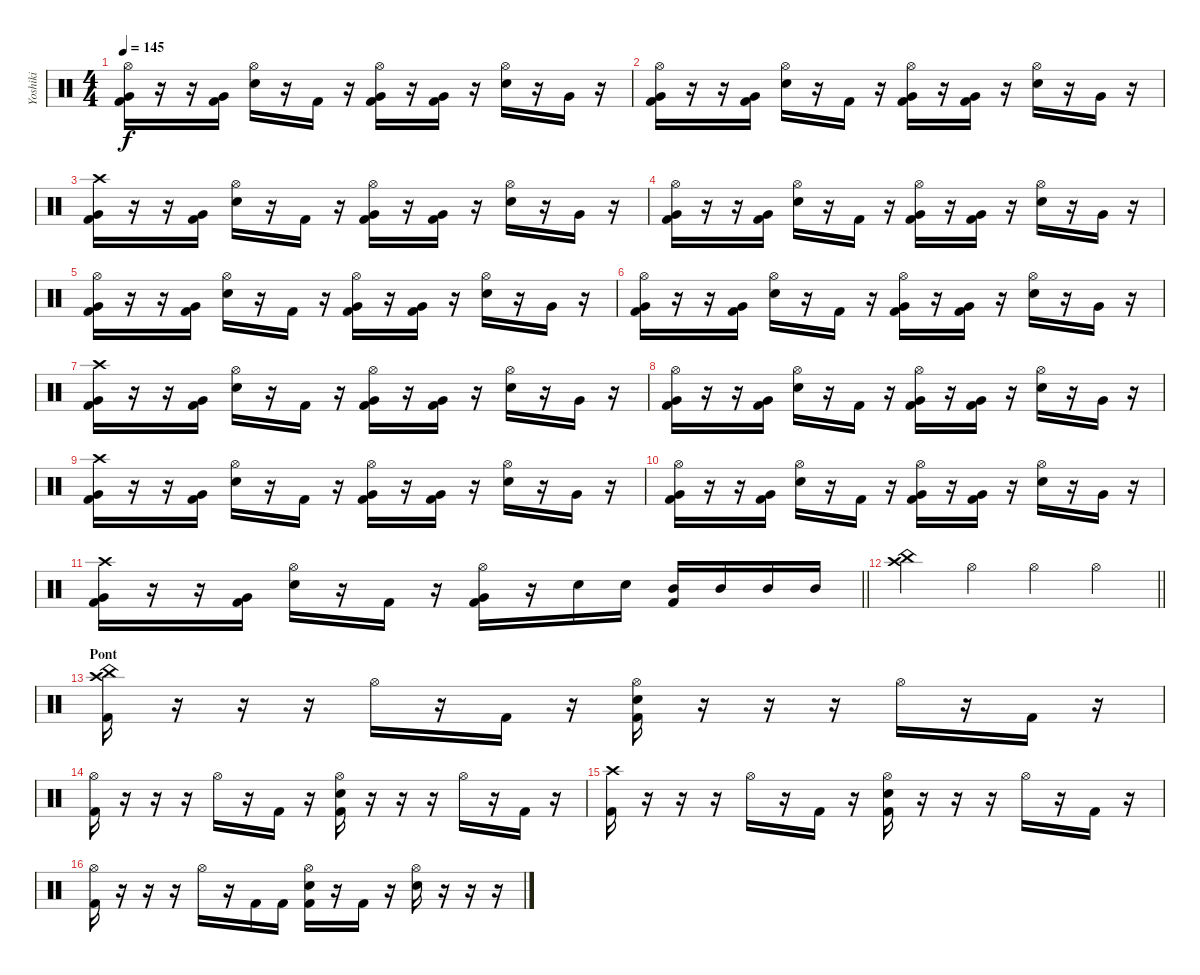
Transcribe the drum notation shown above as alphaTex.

\track ("Yoshiki" "Yoshiki") {instrument percussion}
\staff {score}
\articulation defaults
\ts (4 4)
\tempo 145
\clef neutral
\ks c
("Hi-Hat (open)" "Very Low Tom (hit)" "Kick (hit) 2").16{dy f} r.16 r.16 ("Very Low Tom (hit)" "Kick (hit) 2").16 ("Hi-Hat (open)" "Snare (hit) 2").16 r.16 "Kick (hit) 2".16 r.16 ("Hi-Hat (open)" "Very Low Tom (hit)" "Kick (hit) 2").16 r.16 ("Very Low Tom (hit)" "Kick (hit) 2").16 r.16 ("Hi-Hat (open)" "Snare (hit) 2").16 r.16 "Very Low Tom (hit)".16 r.16 |
("Hi-Hat (open)" "Very Low Tom (hit)" "Kick (hit) 2").16 r.16 r.16 ("Very Low Tom (hit)" "Kick (hit) 2").16 ("Hi-Hat (open)" "Snare (hit) 2").16 r.16 "Kick (hit) 2".16 r.16 ("Hi-Hat (open)" "Very Low Tom (hit)" "Kick (hit) 2").16 r.16 ("Very Low Tom (hit)" "Kick (hit) 2").16 r.16 ("Hi-Hat (open)" "Snare (hit) 2").16 r.16 "Very Low Tom (hit)".16 r.16 |
("Crash high (hit)" "Very Low Tom (hit)" "Kick (hit) 2").16 r.16 r.16 ("Very Low Tom (hit)" "Kick (hit) 2").16 ("Hi-Hat (open)" "Snare (hit) 2").16 r.16 "Kick (hit) 2".16 r.16 ("Hi-Hat (open)" "Very Low Tom (hit)" "Kick (hit) 2").16 r.16 ("Very Low Tom (hit)" "Kick (hit) 2").16 r.16 ("Hi-Hat (open)" "Snare (hit) 2").16 r.16 "Very Low Tom (hit)".16 r.16 |
("Hi-Hat (open)" "Very Low Tom (hit)" "Kick (hit) 2").16 r.16 r.16 ("Very Low Tom (hit)" "Kick (hit) 2").16 ("Hi-Hat (open)" "Snare (hit) 2").16 r.16 "Kick (hit) 2".16 r.16 ("Hi-Hat (open)" "Very Low Tom (hit)" "Kick (hit) 2").16 r.16 ("Very Low Tom (hit)" "Kick (hit) 2").16 r.16 ("Hi-Hat (open)" "Snare (hit) 2").16 r.16 "Very Low Tom (hit)".16 r.16 |
("Hi-Hat (open)" "Very Low Tom (hit)" "Kick (hit) 2").16 r.16 r.16 ("Very Low Tom (hit)" "Kick (hit) 2").16 ("Hi-Hat (open)" "Snare (hit) 2").16 r.16 "Kick (hit) 2".16 r.16 ("Hi-Hat (open)" "Very Low Tom (hit)" "Kick (hit) 2").16 r.16 ("Very Low Tom (hit)" "Kick (hit) 2").16 r.16 ("Hi-Hat (open)" "Snare (hit) 2").16 r.16 "Very Low Tom (hit)".16 r.16 |
("Hi-Hat (open)" "Very Low Tom (hit)" "Kick (hit) 2").16 r.16 r.16 ("Very Low Tom (hit)" "Kick (hit) 2").16 ("Hi-Hat (open)" "Snare (hit) 2").16 r.16 "Kick (hit) 2".16 r.16 ("Hi-Hat (open)" "Very Low Tom (hit)" "Kick (hit) 2").16 r.16 ("Very Low Tom (hit)" "Kick (hit) 2").16 r.16 ("Hi-Hat (open)" "Snare (hit) 2").16 r.16 "Very Low Tom (hit)".16 r.16 |
("Crash high (hit)" "Very Low Tom (hit)" "Kick (hit) 2").16 r.16 r.16 ("Very Low Tom (hit)" "Kick (hit) 2").16 ("Hi-Hat (open)" "Snare (hit) 2").16 r.16 "Kick (hit) 2".16 r.16 ("Hi-Hat (open)" "Very Low Tom (hit)" "Kick (hit) 2").16 r.16 ("Very Low Tom (hit)" "Kick (hit) 2").16 r.16 ("Hi-Hat (open)" "Snare (hit) 2").16 r.16 "Very Low Tom (hit)".16 r.16 |
("Hi-Hat (open)" "Very Low Tom (hit)" "Kick (hit) 2").16 r.16 r.16 ("Very Low Tom (hit)" "Kick (hit) 2").16 ("Hi-Hat (open)" "Snare (hit) 2").16 r.16 "Kick (hit) 2".16 r.16 ("Hi-Hat (open)" "Very Low Tom (hit)" "Kick (hit) 2").16 r.16 ("Very Low Tom (hit)" "Kick (hit) 2").16 r.16 ("Hi-Hat (open)" "Snare (hit) 2").16 r.16 "Very Low Tom (hit)".16 r.16 |
("Crash high (hit)" "Very Low Tom (hit)" "Kick (hit) 2").16 r.16 r.16 ("Very Low Tom (hit)" "Kick (hit) 2").16 ("Hi-Hat (open)" "Snare (hit) 2").16 r.16 "Kick (hit) 2".16 r.16 ("Hi-Hat (open)" "Very Low Tom (hit)" "Kick (hit) 2").16 r.16 ("Very Low Tom (hit)" "Kick (hit) 2").16 r.16 ("Hi-Hat (open)" "Snare (hit) 2").16 r.16 "Very Low Tom (hit)".16 r.16 |
("Hi-Hat (open)" "Very Low Tom (hit)" "Kick (hit) 2").16 r.16 r.16 ("Very Low Tom (hit)" "Kick (hit) 2").16 ("Hi-Hat (open)" "Snare (hit) 2").16 r.16 "Kick (hit) 2".16 r.16 ("Hi-Hat (open)" "Very Low Tom (hit)" "Kick (hit) 2").16 r.16 ("Very Low Tom (hit)" "Kick (hit) 2").16 r.16 ("Hi-Hat (open)" "Snare (hit) 2").16 r.16 "Very Low Tom (hit)".16 r.16 |
\barLineRight lightlight
("Crash high (hit)" "Very Low Tom (hit)" "Kick (hit) 2").16 r.16 r.16 ("Very Low Tom (hit)" "Kick (hit) 2").16 ("Hi-Hat (open)" "Snare (hit) 2").16 r.16 "Kick (hit) 2".16 r.16 ("Hi-Hat (open)" "Very Low Tom (hit)" "Kick (hit) 2").16 r.16 "Snare (hit) 2".16 "Snare (hit) 2".16 ("Mid Tom (hit)" "Kick (hit) 2").16 "Mid Tom (hit)".16 "Mid Tom (hit)".16 "Mid Tom (hit)".16 |
\barLineRight lightlight
("Crash high (hit)" "China (hit)").4 "Hi-Hat (open)".4 "Hi-Hat (open)".4 "Hi-Hat (open)".4 |
\section ("" "Pont")
("Crash high (hit)" "China (hit)" "Kick (hit) 2").16 r.16 r.16 r.16 "Hi-Hat (open)".16 r.16 "Kick (hit) 2".16 r.16 ("Hi-Hat (open)" "Snare (hit) 2" "Kick (hit) 2").16 r.16 r.16 r.16 "Hi-Hat (open)".16 r.16 "Kick (hit) 2".16 r.16 |
("Hi-Hat (open)" "Kick (hit) 2").16 r.16 r.16 r.16 "Hi-Hat (open)".16 r.16 "Kick (hit) 2".16 r.16 ("Hi-Hat (open)" "Snare (hit) 2" "Kick (hit) 2").16 r.16 r.16 r.16 "Hi-Hat (open)".16 r.16 "Kick (hit) 2".16 r.16 |
("Crash high (hit)" "Kick (hit) 2").16 r.16 r.16 r.16 "Hi-Hat (open)".16 r.16 "Kick (hit) 2".16 r.16 ("Hi-Hat (open)" "Snare (hit) 2" "Kick (hit) 2").16 r.16 r.16 r.16 "Hi-Hat (open)".16 r.16 "Kick (hit) 2".16 r.16 |
("Hi-Hat (open)" "Kick (hit) 2").16 r.16 r.16 r.16 "Hi-Hat (open)".16 r.16 "Kick (hit) 2".16 "Kick (hit) 2".16 ("Hi-Hat (open)" "Snare (hit) 2" "Kick (hit) 2").16 r.16 "Kick (hit) 2".16 r.16 ("Hi-Hat (open)" "Snare (hit) 2").16 r.16 r.16 r.16
